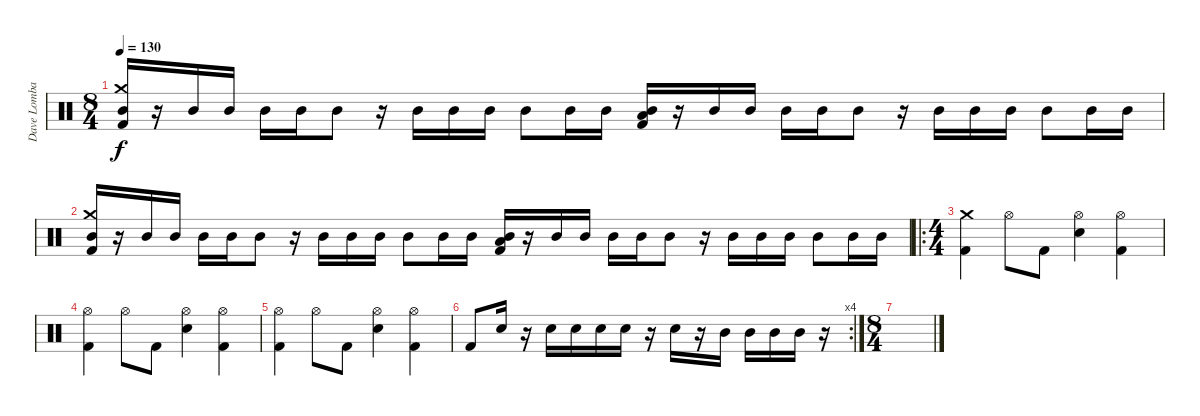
\track ("Dave Lombardo" "Dave Lomba") {instrument percussion}
\staff {score}
\articulation defaults
\ts (8 4)
\tempo 130
\clef neutral
\ks c
("Mid Tom (hit)" "Crash medium (hit)" "Kick (hit) 2").16{dy f} r.16 "Mid Tom (hit)".16 "Mid Tom (hit)".16 "Mid Tom (hit)".16 "Mid Tom (hit)".16 "Mid Tom (hit)".8 r.16 "Mid Tom (hit)".16 "Mid Tom (hit)".16 "Mid Tom (hit)".16 "Mid Tom (hit)".8 "Mid Tom (hit)".16 "Mid Tom (hit)".16 ("Mid Tom (hit)" "Low Tom (hit)" "Kick (hit) 2").16 r.16 "Mid Tom (hit)".16 "Mid Tom (hit)".16 "Mid Tom (hit)".16 "Mid Tom (hit)".16 "Mid Tom (hit)".8 r.16 "Mid Tom (hit)".16 "Mid Tom (hit)".16 "Mid Tom (hit)".16 "Mid Tom (hit)".8 "Mid Tom (hit)".16 "Mid Tom (hit)".16 |
("Mid Tom (hit)" "Crash medium (hit)" "Kick (hit) 2").16 r.16 "Mid Tom (hit)".16 "Mid Tom (hit)".16 "Mid Tom (hit)".16 "Mid Tom (hit)".16 "Mid Tom (hit)".8 r.16 "Mid Tom (hit)".16 "Mid Tom (hit)".16 "Mid Tom (hit)".16 "Mid Tom (hit)".8 "Mid Tom (hit)".16 "Mid Tom (hit)".16 ("Mid Tom (hit)" "Low Tom (hit)" "Kick (hit) 2").16 r.16 "Mid Tom (hit)".16 "Mid Tom (hit)".16 "Mid Tom (hit)".16 "Mid Tom (hit)".16 "Mid Tom (hit)".8 r.16 "Mid Tom (hit)".16 "Mid Tom (hit)".16 "Mid Tom (hit)".16 "Mid Tom (hit)".8 "Mid Tom (hit)".16 "Mid Tom (hit)".16 |
\ro
\ts (4 4)
("Crash medium (hit)" "Kick (hit) 2").4 "Hi-Hat (open)".8 "Kick (hit) 2".8 ("Electric Snare (hit)" "Hi-Hat (open)").4 ("Kick (hit) 2" "Hi-Hat (open)").4 |
("Kick (hit) 2" "Hi-Hat (open)").4 "Hi-Hat (open)".8 "Kick (hit) 2".8 ("Electric Snare (hit)" "Hi-Hat (open)").4 ("Kick (hit) 2" "Hi-Hat (open)").4 |
("Kick (hit) 2" "Hi-Hat (open)").4 "Hi-Hat (open)".8 "Kick (hit) 2".8 ("Electric Snare (hit)" "Hi-Hat (open)").4 ("Kick (hit) 2" "Hi-Hat (open)").4 |
\rc 4 "Kick (hit) 2".8 "Electric Snare (hit)".16
r.16 "Snare (hit) 2".16 "Snare (hit) 2".16 "Snare (hit) 2".16 "Snare (hit) 2".16 r.16 "Snare (hit) 2".16 r.16 "Mid Tom (hit)".16 "Mid Tom (hit)".16 "Mid Tom (hit)".16 "Mid Tom (hit)".16 r.16 |
\ts (8 4)
